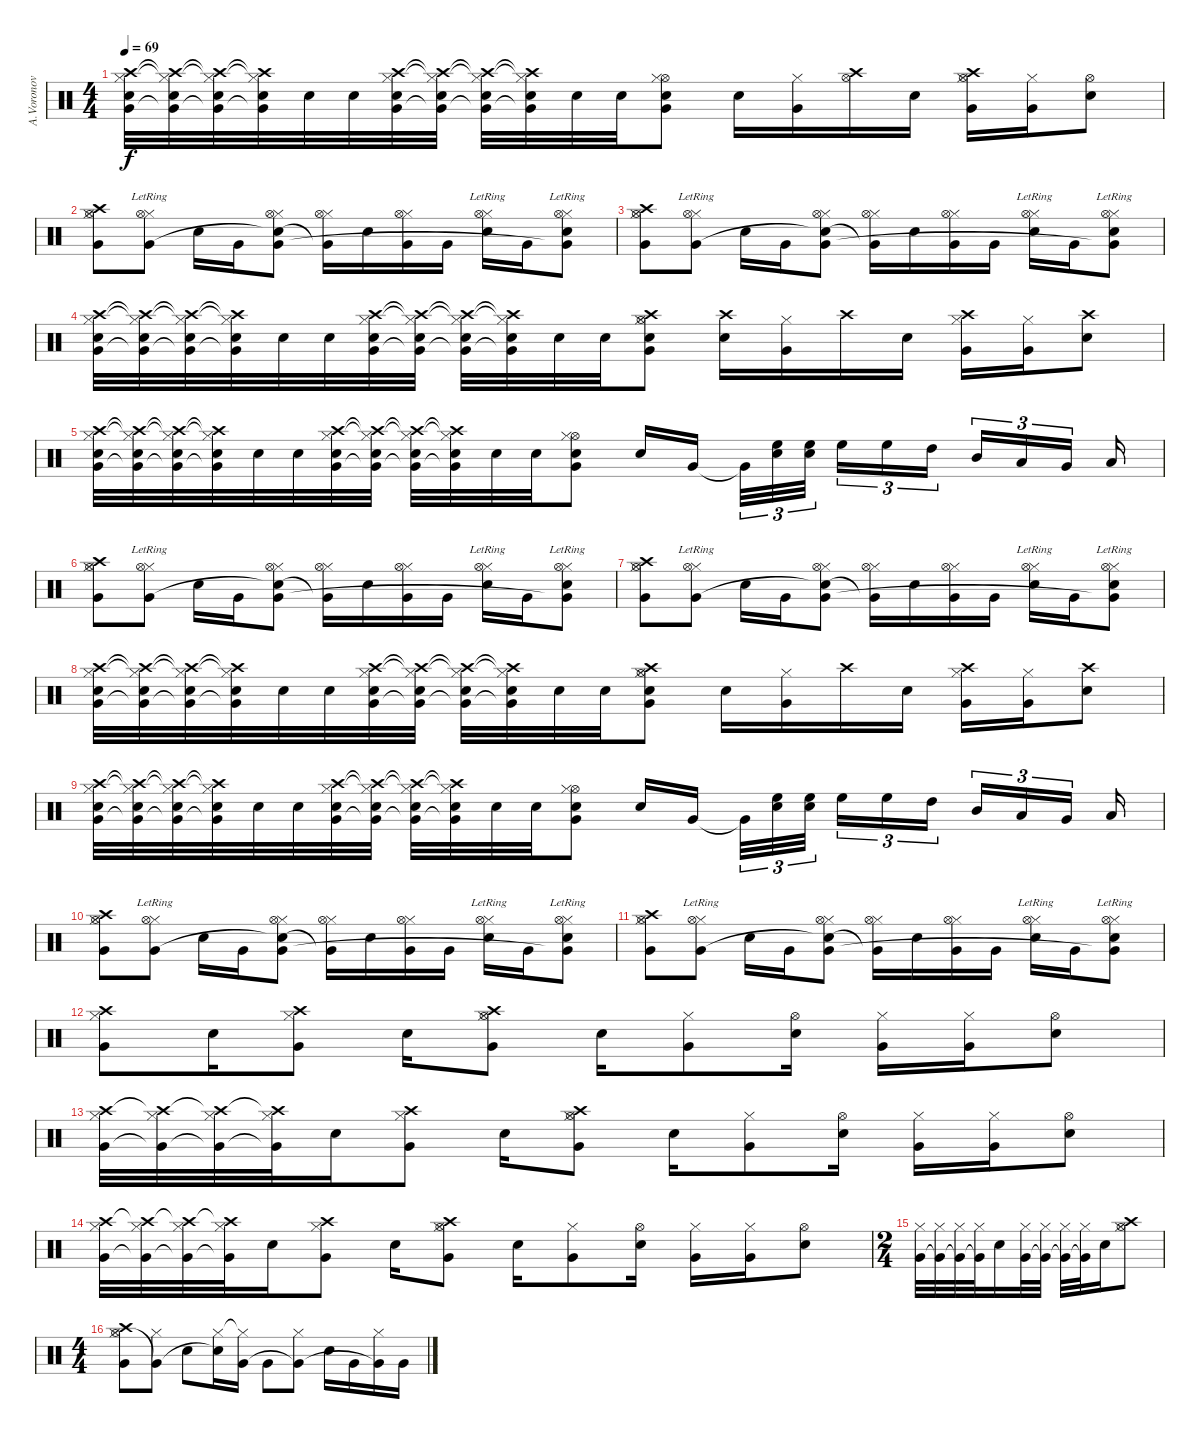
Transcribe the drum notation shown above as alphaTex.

\track ("A.Voronov - Drumzzz" "A.Voronov ") {instrument percussion}
\staff {score}
\articulation defaults
\ts (4 4)
\tempo 69
\clef neutral
\ks c
("Crash high (hit)" "Hi-Hat (closed)" "Electric Snare (hit)" "Very Low Tom (hit)").32{dy f volume 10} ("Crash high (hit)"{t} "Hi-Hat (closed)"{t} "Electric Snare (hit)" "Very Low Tom (hit)"{t}).32 ("Crash high (hit)"{t} "Hi-Hat (closed)"{t} "Electric Snare (hit)" "Very Low Tom (hit)"{t}).32 ("Crash high (hit)"{t} "Hi-Hat (closed)"{t} "Electric Snare (hit)" "Very Low Tom (hit)"{t}).32 "Electric Snare (hit)".32 "Electric Snare (hit)".32 ("Crash high (hit)" "Hi-Hat (closed)" "Electric Snare (hit)" "Very Low Tom (hit)").32 ("Crash high (hit)"{t} "Hi-Hat (closed)"{t} "Electric Snare (hit)" "Very Low Tom (hit)"{t}).32 ("Crash high (hit)"{t} "Hi-Hat (closed)"{t} "Electric Snare (hit)" "Very Low Tom (hit)"{t}).32 ("Crash high (hit)"{t} "Hi-Hat (closed)"{t} "Electric Snare (hit)" "Very Low Tom (hit)"{t}).32 "Electric Snare (hit)".32 "Electric Snare (hit)".32 ("Hi-Hat (open)" "Hi-Hat (closed)" "Electric Snare (hit)" "Very Low Tom (hit)").8{volume 13} "Electric Snare (hit)".16 ("Hi-Hat (closed)" "Very Low Tom (hit)").16 ("Crash high (hit)" "Hi-Hat (open)").16 "Electric Snare (hit)".16 ("Crash high (hit)" "Hi-Hat (open)" "Hi-Hat (closed)" "Very Low Tom (hit)").16 ("Hi-Hat (closed)" "Very Low Tom (hit)").16 ("Hi-Hat (open)" "Electric Snare (hit)").8 |
("Hi-Hat (open)" "Hi-Hat (closed)" "Crash high (hit)" "Very Low Tom (hit)").8 ("Hi-Hat (closed)"{lr} "Hi-Hat (open)"{lr} "Very Low Tom (hit)").8 "Electric Snare (hit)".16 "Very Low Tom (hit)".16 ("Hi-Hat (closed)" "Hi-Hat (open)" "Electric Snare (hit)"{t} "Very Low Tom (hit)").8 ("Hi-Hat (closed)" "Hi-Hat (open)" "Very Low Tom (hit)"{t}).16 "Electric Snare (hit)".16 ("Hi-Hat (closed)" "Hi-Hat (open)" "Very Low Tom (hit)").16 "Very Low Tom (hit)".16 ("Hi-Hat (closed)"{lr} "Hi-Hat (open)"{lr} "Electric Snare (hit)").16 "Very Low Tom (hit)".16 ("Hi-Hat (closed)"{lr} "Hi-Hat (open)"{lr} "Electric Snare (hit)" "Very Low Tom (hit)"{t}).8 |
("Hi-Hat (open)" "Hi-Hat (closed)" "Crash high (hit)" "Very Low Tom (hit)").8 ("Hi-Hat (closed)"{lr} "Hi-Hat (open)"{lr} "Very Low Tom (hit)").8 "Electric Snare (hit)".16 "Very Low Tom (hit)".16 ("Hi-Hat (closed)" "Hi-Hat (open)" "Electric Snare (hit)"{t} "Very Low Tom (hit)").8 ("Hi-Hat (closed)" "Hi-Hat (open)" "Very Low Tom (hit)"{t}).16 "Electric Snare (hit)".16 ("Hi-Hat (closed)" "Hi-Hat (open)" "Very Low Tom (hit)").16 "Very Low Tom (hit)".16 ("Hi-Hat (closed)"{lr} "Hi-Hat (open)"{lr} "Electric Snare (hit)").16 "Very Low Tom (hit)".16 ("Hi-Hat (closed)"{lr} "Hi-Hat (open)"{lr} "Electric Snare (hit)" "Very Low Tom (hit)"{t}).8 |
("Crash high (hit)" "Hi-Hat (closed)" "Electric Snare (hit)" "Very Low Tom (hit)").32{volume 10} ("Crash high (hit)"{t} "Hi-Hat (closed)"{t} "Electric Snare (hit)" "Very Low Tom (hit)"{t}).32 ("Crash high (hit)"{t} "Hi-Hat (closed)"{t} "Electric Snare (hit)" "Very Low Tom (hit)"{t}).32 ("Crash high (hit)"{t} "Hi-Hat (closed)"{t} "Electric Snare (hit)" "Very Low Tom (hit)"{t}).32 "Electric Snare (hit)".32 "Electric Snare (hit)".32 ("Crash high (hit)" "Hi-Hat (closed)" "Electric Snare (hit)" "Very Low Tom (hit)").32 ("Crash high (hit)"{t} "Hi-Hat (closed)"{t} "Electric Snare (hit)" "Very Low Tom (hit)"{t}).32 ("Crash high (hit)"{t} "Hi-Hat (closed)"{t} "Electric Snare (hit)" "Very Low Tom (hit)"{t}).32 ("Crash high (hit)"{t} "Hi-Hat (closed)"{t} "Electric Snare (hit)" "Very Low Tom (hit)"{t}).32 "Electric Snare (hit)".32 "Electric Snare (hit)".32 ("Crash high (hit)" "Hi-Hat (open)" "Hi-Hat (closed)" "Electric Snare (hit)" "Very Low Tom (hit)").8{volume 13} ("Crash high (hit)" "Electric Snare (hit)").16 ("Hi-Hat (closed)" "Very Low Tom (hit)").16 "Crash high (hit)".16 "Electric Snare (hit)".16 ("Crash high (hit)" "Hi-Hat (closed)" "Very Low Tom (hit)").16 ("Hi-Hat (closed)" "Very Low Tom (hit)").16 ("Crash high (hit)" "Electric Snare (hit)").8 |
("Crash high (hit)" "Hi-Hat (closed)" "Electric Snare (hit)" "Very Low Tom (hit)").32{volume 10} ("Crash high (hit)"{t} "Hi-Hat (closed)"{t} "Electric Snare (hit)" "Very Low Tom (hit)"{t}).32 ("Crash high (hit)"{t} "Hi-Hat (closed)"{t} "Electric Snare (hit)" "Very Low Tom (hit)"{t}).32 ("Crash high (hit)"{t} "Hi-Hat (closed)"{t} "Electric Snare (hit)" "Very Low Tom (hit)"{t}).32 "Electric Snare (hit)".32 "Electric Snare (hit)".32 ("Crash high (hit)" "Hi-Hat (closed)" "Electric Snare (hit)" "Very Low Tom (hit)").32 ("Crash high (hit)"{t} "Hi-Hat (closed)"{t} "Electric Snare (hit)" "Very Low Tom (hit)"{t}).32 ("Crash high (hit)"{t} "Hi-Hat (closed)"{t} "Electric Snare (hit)" "Very Low Tom (hit)"{t}).32 ("Crash high (hit)"{t} "Hi-Hat (closed)"{t} "Electric Snare (hit)" "Very Low Tom (hit)"{t}).32 "Electric Snare (hit)".32 "Electric Snare (hit)".32 ("Hi-Hat (open)" "Hi-Hat (closed)" "Electric Snare (hit)" "Very Low Tom (hit)").8{volume 13} "Electric Snare (hit)".16 "Very Low Tom (hit)".16 "Very Low Tom (hit)"{t}.32{tu (3 2)} ("High Floor Tom (hit)" "Electric Snare (hit)").32{tu (3 2)} ("High Floor Tom (hit)" "Electric Snare (hit)").32{tu (3 2)} "High Floor Tom (hit)".16{tu (3 2)} "High Floor Tom (hit)".16{tu (3 2)} "High Tom (hit)".16{tu (3 2)} "Mid Tom (hit)".16{tu (3 2)} "Low Tom (hit)".16{tu (3 2)} "Very Low Tom (hit)".16{tu (3 2)} "Low Floor Tom (hit)".16 |
("Hi-Hat (open)" "Hi-Hat (closed)" "Crash high (hit)" "Very Low Tom (hit)").8 ("Hi-Hat (closed)"{lr} "Hi-Hat (open)"{lr} "Very Low Tom (hit)").8 "Electric Snare (hit)".16 "Very Low Tom (hit)".16 ("Hi-Hat (closed)" "Hi-Hat (open)" "Electric Snare (hit)"{t} "Very Low Tom (hit)").8 ("Hi-Hat (closed)" "Hi-Hat (open)" "Very Low Tom (hit)"{t}).16 "Electric Snare (hit)".16 ("Hi-Hat (closed)" "Hi-Hat (open)" "Very Low Tom (hit)").16 "Very Low Tom (hit)".16 ("Hi-Hat (closed)"{lr} "Hi-Hat (open)"{lr} "Electric Snare (hit)").16 "Very Low Tom (hit)".16 ("Hi-Hat (closed)"{lr} "Hi-Hat (open)"{lr} "Electric Snare (hit)" "Very Low Tom (hit)"{t}).8 |
("Hi-Hat (open)" "Hi-Hat (closed)" "Crash high (hit)" "Very Low Tom (hit)").8 ("Hi-Hat (closed)"{lr} "Hi-Hat (open)"{lr} "Very Low Tom (hit)").8 "Electric Snare (hit)".16 "Very Low Tom (hit)".16 ("Hi-Hat (closed)" "Hi-Hat (open)" "Electric Snare (hit)"{t} "Very Low Tom (hit)").8 ("Hi-Hat (closed)" "Hi-Hat (open)" "Very Low Tom (hit)"{t}).16 "Electric Snare (hit)".16 ("Hi-Hat (closed)" "Hi-Hat (open)" "Very Low Tom (hit)").16 "Very Low Tom (hit)".16 ("Hi-Hat (closed)"{lr} "Hi-Hat (open)"{lr} "Electric Snare (hit)").16 "Very Low Tom (hit)".16 ("Hi-Hat (closed)"{lr} "Hi-Hat (open)"{lr} "Electric Snare (hit)" "Very Low Tom (hit)"{t}).8 |
("Crash high (hit)" "Hi-Hat (closed)" "Electric Snare (hit)" "Very Low Tom (hit)").32{volume 10} ("Crash high (hit)"{t} "Hi-Hat (closed)"{t} "Electric Snare (hit)" "Very Low Tom (hit)"{t}).32 ("Crash high (hit)"{t} "Hi-Hat (closed)"{t} "Electric Snare (hit)" "Very Low Tom (hit)"{t}).32 ("Crash high (hit)"{t} "Hi-Hat (closed)"{t} "Electric Snare (hit)" "Very Low Tom (hit)"{t}).32 "Electric Snare (hit)".32 "Electric Snare (hit)".32 ("Crash high (hit)" "Hi-Hat (closed)" "Electric Snare (hit)" "Very Low Tom (hit)").32 ("Crash high (hit)"{t} "Hi-Hat (closed)"{t} "Electric Snare (hit)" "Very Low Tom (hit)"{t}).32 ("Crash high (hit)"{t} "Hi-Hat (closed)"{t} "Electric Snare (hit)" "Very Low Tom (hit)"{t}).32 ("Crash high (hit)"{t} "Hi-Hat (closed)"{t} "Electric Snare (hit)" "Very Low Tom (hit)"{t}).32 "Electric Snare (hit)".32 "Electric Snare (hit)".32 ("Crash high (hit)" "Hi-Hat (open)" "Hi-Hat (closed)" "Electric Snare (hit)" "Very Low Tom (hit)").8{volume 13} "Electric Snare (hit)".16 ("Hi-Hat (closed)" "Very Low Tom (hit)").16 "Crash high (hit)".16 "Electric Snare (hit)".16 ("Crash high (hit)" "Hi-Hat (closed)" "Very Low Tom (hit)").16 ("Hi-Hat (closed)" "Very Low Tom (hit)").16 ("Crash high (hit)" "Electric Snare (hit)").8 |
("Crash high (hit)" "Hi-Hat (closed)" "Electric Snare (hit)" "Very Low Tom (hit)").32{volume 10} ("Crash high (hit)"{t} "Hi-Hat (closed)"{t} "Electric Snare (hit)" "Very Low Tom (hit)"{t}).32 ("Crash high (hit)"{t} "Hi-Hat (closed)"{t} "Electric Snare (hit)" "Very Low Tom (hit)"{t}).32 ("Crash high (hit)"{t} "Hi-Hat (closed)"{t} "Electric Snare (hit)" "Very Low Tom (hit)"{t}).32 "Electric Snare (hit)".32 "Electric Snare (hit)".32 ("Crash high (hit)" "Hi-Hat (closed)" "Electric Snare (hit)" "Very Low Tom (hit)").32 ("Crash high (hit)"{t} "Hi-Hat (closed)"{t} "Electric Snare (hit)" "Very Low Tom (hit)"{t}).32 ("Crash high (hit)"{t} "Hi-Hat (closed)"{t} "Electric Snare (hit)" "Very Low Tom (hit)"{t}).32 ("Crash high (hit)"{t} "Hi-Hat (closed)"{t} "Electric Snare (hit)" "Very Low Tom (hit)"{t}).32 "Electric Snare (hit)".32 "Electric Snare (hit)".32 ("Hi-Hat (open)" "Hi-Hat (closed)" "Electric Snare (hit)" "Very Low Tom (hit)").8{volume 13} "Electric Snare (hit)".16 "Very Low Tom (hit)".16 "Very Low Tom (hit)"{t}.32{tu (3 2)} ("High Floor Tom (hit)" "Electric Snare (hit)").32{tu (3 2)} ("High Floor Tom (hit)" "Electric Snare (hit)").32{tu (3 2)} "High Floor Tom (hit)".16{tu (3 2)} "High Floor Tom (hit)".16{tu (3 2)} "High Tom (hit)".16{tu (3 2)} "Mid Tom (hit)".16{tu (3 2)} "Low Tom (hit)".16{tu (3 2)} "Very Low Tom (hit)".16{tu (3 2)} "Low Floor Tom (hit)".16 |
("Hi-Hat (open)" "Hi-Hat (closed)" "Crash high (hit)" "Very Low Tom (hit)").8 ("Hi-Hat (closed)"{lr} "Hi-Hat (open)"{lr} "Very Low Tom (hit)").8 "Electric Snare (hit)".16 "Very Low Tom (hit)".16 ("Hi-Hat (closed)" "Hi-Hat (open)" "Electric Snare (hit)"{t} "Very Low Tom (hit)").8 ("Hi-Hat (closed)" "Hi-Hat (open)" "Very Low Tom (hit)"{t}).16 "Electric Snare (hit)".16 ("Hi-Hat (closed)" "Hi-Hat (open)" "Very Low Tom (hit)").16 "Very Low Tom (hit)".16 ("Hi-Hat (closed)"{lr} "Hi-Hat (open)"{lr} "Electric Snare (hit)").16 "Very Low Tom (hit)".16 ("Hi-Hat (closed)"{lr} "Hi-Hat (open)"{lr} "Electric Snare (hit)" "Very Low Tom (hit)"{t}).8 |
("Hi-Hat (open)" "Hi-Hat (closed)" "Crash high (hit)" "Very Low Tom (hit)").8 ("Hi-Hat (closed)"{lr} "Hi-Hat (open)"{lr} "Very Low Tom (hit)").8 "Electric Snare (hit)".16 "Very Low Tom (hit)".16 ("Hi-Hat (closed)" "Hi-Hat (open)" "Electric Snare (hit)"{t} "Very Low Tom (hit)").8 ("Hi-Hat (closed)" "Hi-Hat (open)" "Very Low Tom (hit)"{t}).16 "Electric Snare (hit)".16 ("Hi-Hat (closed)" "Hi-Hat (open)" "Very Low Tom (hit)").16 "Very Low Tom (hit)".16 ("Hi-Hat (closed)"{lr} "Hi-Hat (open)"{lr} "Electric Snare (hit)").16 "Very Low Tom (hit)".16 ("Hi-Hat (closed)"{lr} "Hi-Hat (open)"{lr} "Electric Snare (hit)" "Very Low Tom (hit)"{t}).8 |
("Crash high (hit)" "Hi-Hat (closed)" "Very Low Tom (hit)").8 "Electric Snare (hit)".16 ("Crash high (hit)" "Hi-Hat (closed)" "Very Low Tom (hit)").8 "Electric Snare (hit)".16 ("Crash high (hit)" "Hi-Hat (open)" "Hi-Hat (closed)" "Very Low Tom (hit)").8 "Electric Snare (hit)".16 ("Hi-Hat (closed)" "Very Low Tom (hit)").8 ("Hi-Hat (open)" "Electric Snare (hit)").16 ("Hi-Hat (closed)" "Very Low Tom (hit)").16 ("Hi-Hat (closed)" "Very Low Tom (hit)").16 ("Hi-Hat (open)" "Electric Snare (hit)").8 |
("Crash high (hit)" "Hi-Hat (closed)" "Very Low Tom (hit)").32 ("Crash high (hit)"{t} "Hi-Hat (closed)" "Very Low Tom (hit)"{t}).32 ("Crash high (hit)"{t} "Hi-Hat (closed)" "Very Low Tom (hit)"{t}).32 ("Crash high (hit)"{t} "Hi-Hat (closed)" "Very Low Tom (hit)"{t}).32 "Electric Snare (hit)".16 ("Crash high (hit)" "Hi-Hat (closed)" "Very Low Tom (hit)").8 "Electric Snare (hit)".16 ("Crash high (hit)" "Hi-Hat (open)" "Hi-Hat (closed)" "Very Low Tom (hit)").8 "Electric Snare (hit)".16 ("Hi-Hat (closed)" "Very Low Tom (hit)").8 ("Hi-Hat (open)" "Electric Snare (hit)").16 ("Hi-Hat (closed)" "Very Low Tom (hit)").16 ("Hi-Hat (closed)" "Very Low Tom (hit)").16 ("Hi-Hat (open)" "Electric Snare (hit)").8 |
("Crash high (hit)" "Hi-Hat (closed)" "Very Low Tom (hit)").32 ("Crash high (hit)"{t} "Hi-Hat (closed)" "Very Low Tom (hit)"{t}).32 ("Crash high (hit)"{t} "Hi-Hat (closed)" "Very Low Tom (hit)"{t}).32 ("Crash high (hit)"{t} "Hi-Hat (closed)" "Very Low Tom (hit)"{t}).32 "Electric Snare (hit)".16 ("Crash high (hit)" "Hi-Hat (closed)" "Very Low Tom (hit)").8 "Electric Snare (hit)".16 ("Crash high (hit)" "Hi-Hat (open)" "Hi-Hat (closed)" "Very Low Tom (hit)").8 "Electric Snare (hit)".16 ("Hi-Hat (closed)" "Very Low Tom (hit)").8 ("Hi-Hat (open)" "Electric Snare (hit)").16 ("Hi-Hat (closed)" "Very Low Tom (hit)").16 ("Hi-Hat (closed)" "Very Low Tom (hit)").16 ("Hi-Hat (open)" "Electric Snare (hit)").8 |
\ts (2 4)
("Hi-Hat (closed)" "Very Low Tom (hit)").32 ("Hi-Hat (closed)" "Very Low Tom (hit)"{t}).32 ("Hi-Hat (closed)" "Very Low Tom (hit)"{t}).32 ("Hi-Hat (closed)" "Very Low Tom (hit)"{t}).32 "Electric Snare (hit)".16 ("Hi-Hat (closed)" "Very Low Tom (hit)").32 ("Hi-Hat (closed)" "Very Low Tom (hit)"{t}).32 ("Hi-Hat (closed)" "Very Low Tom (hit)"{t}).32 ("Hi-Hat (closed)" "Very Low Tom (hit)"{t}).32 "Electric Snare (hit)".16 ("Hi-Hat (open)" "Hi-Hat (closed)" "Crash high (hit)").8 |
\ts (4 4)
("Hi-Hat (open)" "Hi-Hat (closed)" "Crash high (hit)" "Very Low Tom (hit)").8 ("Hi-Hat (closed)" "Very Low Tom (hit)"{t}).8 "Electric Snare (hit)".8 ("Hi-Hat (closed)" "Electric Snare (hit)"{t}).16 ("Hi-Hat (closed)"{t} "Very Low Tom (hit)").16 "Very Low Tom (hit)".8 ("Hi-Hat (closed)" "Very Low Tom (hit)"{t}).8 "Electric Snare (hit)".16 "Very Low Tom (hit)".16 ("Hi-Hat (closed)" "Very Low Tom (hit)"{t}).16 "Very Low Tom (hit)".16
